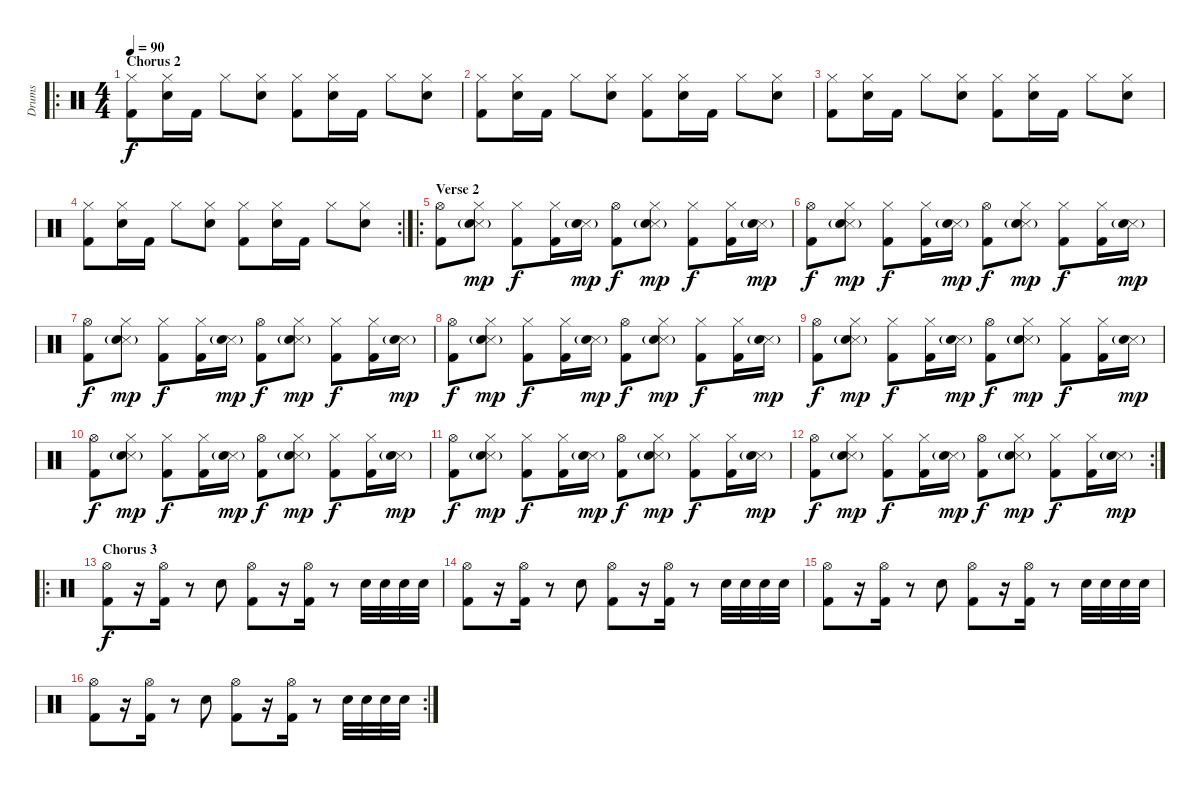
\track ("Drums" "Drums") {instrument percussion}
\staff {score}
\articulation defaults
\ro
\ts (4 4)
\section ("" "Chorus 2")
\tempo 90
\clef neutral
\ks c
("Hi-Hat (closed)" "Kick (hit) 2").8{dy f} ("Hi-Hat (closed)" "Electric Snare (hit)").16 "Kick (hit) 2".16 "Hi-Hat (closed)".8 ("Hi-Hat (closed)" "Electric Snare (hit)").8 ("Hi-Hat (closed)" "Kick (hit) 2").8 ("Hi-Hat (closed)" "Electric Snare (hit)").16 "Kick (hit) 2".16 "Hi-Hat (closed)".8 ("Hi-Hat (closed)" "Electric Snare (hit)").8 |
("Hi-Hat (closed)" "Kick (hit) 2").8 ("Hi-Hat (closed)" "Electric Snare (hit)").16 "Kick (hit) 2".16 "Hi-Hat (closed)".8 ("Hi-Hat (closed)" "Electric Snare (hit)").8 ("Hi-Hat (closed)" "Kick (hit) 2").8 ("Hi-Hat (closed)" "Electric Snare (hit)").16 "Kick (hit) 2".16 "Hi-Hat (closed)".8 ("Hi-Hat (closed)" "Electric Snare (hit)").8 |
("Hi-Hat (closed)" "Kick (hit) 2").8 ("Hi-Hat (closed)" "Electric Snare (hit)").16 "Kick (hit) 2".16 "Hi-Hat (closed)".8 ("Hi-Hat (closed)" "Electric Snare (hit)").8 ("Hi-Hat (closed)" "Kick (hit) 2").8 ("Hi-Hat (closed)" "Electric Snare (hit)").16 "Kick (hit) 2".16 "Hi-Hat (closed)".8 ("Hi-Hat (closed)" "Electric Snare (hit)").8 |
\rc 2
("Hi-Hat (closed)" "Kick (hit) 2").8 ("Hi-Hat (closed)" "Electric Snare (hit)").16 "Kick (hit) 2".16 "Hi-Hat (closed)".8 ("Hi-Hat (closed)" "Electric Snare (hit)").8 ("Hi-Hat (closed)" "Kick (hit) 2").8 ("Hi-Hat (closed)" "Electric Snare (hit)").16 "Kick (hit) 2".16 "Hi-Hat (closed)".8 ("Hi-Hat (closed)" "Electric Snare (hit)").8 |
\ro
\section ("" "Verse 2")
("Hi-Hat (open)" "Kick (hit) 2").8 ("Hi-Hat (closed)" "Snare (side stick) 3" "Electric Snare (hit)"{g}).8{dy mp} ("Hi-Hat (closed)" "Kick (hit) 2").8{dy f} ("Hi-Hat (closed)" "Kick (hit) 2").16 ("Snare (side stick) 3" "Electric Snare (hit)"{g}).16{dy mp} ("Hi-Hat (open)" "Kick (hit) 2").8{dy f} ("Hi-Hat (closed)" "Snare (side stick) 3" "Electric Snare (hit)"{g}).8{dy mp} ("Hi-Hat (closed)" "Kick (hit) 2").8{dy f} ("Hi-Hat (closed)" "Kick (hit) 2").16 ("Snare (side stick) 3" "Electric Snare (hit)"{g}).16{dy mp} |
("Hi-Hat (open)" "Kick (hit) 2").8{dy f} ("Hi-Hat (closed)" "Snare (side stick) 3" "Electric Snare (hit)"{g}).8{dy mp} ("Hi-Hat (closed)" "Kick (hit) 2").8{dy f} ("Hi-Hat (closed)" "Kick (hit) 2").16 ("Snare (side stick) 3" "Electric Snare (hit)"{g}).16{dy mp} ("Hi-Hat (open)" "Kick (hit) 2").8{dy f} ("Hi-Hat (closed)" "Snare (side stick) 3" "Electric Snare (hit)"{g}).8{dy mp} ("Hi-Hat (closed)" "Kick (hit) 2").8{dy f} ("Hi-Hat (closed)" "Kick (hit) 2").16 ("Snare (side stick) 3" "Electric Snare (hit)"{g}).16{dy mp} |
("Hi-Hat (open)" "Kick (hit) 2").8{dy f} ("Hi-Hat (closed)" "Snare (side stick) 3" "Electric Snare (hit)"{g}).8{dy mp} ("Hi-Hat (closed)" "Kick (hit) 2").8{dy f} ("Hi-Hat (closed)" "Kick (hit) 2").16 ("Snare (side stick) 3" "Electric Snare (hit)"{g}).16{dy mp} ("Hi-Hat (open)" "Kick (hit) 2").8{dy f} ("Hi-Hat (closed)" "Snare (side stick) 3" "Electric Snare (hit)"{g}).8{dy mp} ("Hi-Hat (closed)" "Kick (hit) 2").8{dy f} ("Hi-Hat (closed)" "Kick (hit) 2").16 ("Snare (side stick) 3" "Electric Snare (hit)"{g}).16{dy mp} |
("Hi-Hat (open)" "Kick (hit) 2").8{dy f} ("Hi-Hat (closed)" "Snare (side stick) 3" "Electric Snare (hit)"{g}).8{dy mp} ("Hi-Hat (closed)" "Kick (hit) 2").8{dy f} ("Hi-Hat (closed)" "Kick (hit) 2").16 ("Snare (side stick) 3" "Electric Snare (hit)"{g}).16{dy mp} ("Hi-Hat (open)" "Kick (hit) 2").8{dy f} ("Hi-Hat (closed)" "Snare (side stick) 3" "Electric Snare (hit)"{g}).8{dy mp} ("Hi-Hat (closed)" "Kick (hit) 2").8{dy f} ("Hi-Hat (closed)" "Kick (hit) 2").16 ("Snare (side stick) 3" "Electric Snare (hit)"{g}).16{dy mp} |
("Hi-Hat (open)" "Kick (hit) 2").8{dy f} ("Hi-Hat (closed)" "Snare (side stick) 3" "Electric Snare (hit)"{g}).8{dy mp} ("Hi-Hat (closed)" "Kick (hit) 2").8{dy f} ("Hi-Hat (closed)" "Kick (hit) 2").16 ("Snare (side stick) 3" "Electric Snare (hit)"{g}).16{dy mp} ("Hi-Hat (open)" "Kick (hit) 2").8{dy f} ("Hi-Hat (closed)" "Snare (side stick) 3" "Electric Snare (hit)"{g}).8{dy mp} ("Hi-Hat (closed)" "Kick (hit) 2").8{dy f} ("Hi-Hat (closed)" "Kick (hit) 2").16 ("Snare (side stick) 3" "Electric Snare (hit)"{g}).16{dy mp} |
("Hi-Hat (open)" "Kick (hit) 2").8{dy f} ("Hi-Hat (closed)" "Snare (side stick) 3" "Electric Snare (hit)"{g}).8{dy mp} ("Hi-Hat (closed)" "Kick (hit) 2").8{dy f} ("Hi-Hat (closed)" "Kick (hit) 2").16 ("Snare (side stick) 3" "Electric Snare (hit)"{g}).16{dy mp} ("Hi-Hat (open)" "Kick (hit) 2").8{dy f} ("Hi-Hat (closed)" "Snare (side stick) 3" "Electric Snare (hit)"{g}).8{dy mp} ("Hi-Hat (closed)" "Kick (hit) 2").8{dy f} ("Hi-Hat (closed)" "Kick (hit) 2").16 ("Snare (side stick) 3" "Electric Snare (hit)"{g}).16{dy mp} |
("Hi-Hat (open)" "Kick (hit) 2").8{dy f} ("Hi-Hat (closed)" "Snare (side stick) 3" "Electric Snare (hit)"{g}).8{dy mp} ("Hi-Hat (closed)" "Kick (hit) 2").8{dy f} ("Hi-Hat (closed)" "Kick (hit) 2").16 ("Snare (side stick) 3" "Electric Snare (hit)"{g}).16{dy mp} ("Hi-Hat (open)" "Kick (hit) 2").8{dy f} ("Hi-Hat (closed)" "Snare (side stick) 3" "Electric Snare (hit)"{g}).8{dy mp} ("Hi-Hat (closed)" "Kick (hit) 2").8{dy f} ("Hi-Hat (closed)" "Kick (hit) 2").16 ("Snare (side stick) 3" "Electric Snare (hit)"{g}).16{dy mp} |
\rc 2
("Hi-Hat (open)" "Kick (hit) 2").8{dy f} ("Hi-Hat (closed)" "Snare (side stick) 3" "Electric Snare (hit)"{g}).8{dy mp} ("Hi-Hat (closed)" "Kick (hit) 2").8{dy f} ("Hi-Hat (closed)" "Kick (hit) 2").16 ("Snare (side stick) 3" "Electric Snare (hit)"{g}).16{dy mp} ("Hi-Hat (open)" "Kick (hit) 2").8{dy f} ("Hi-Hat (closed)" "Snare (side stick) 3" "Electric Snare (hit)"{g}).8{dy mp} ("Hi-Hat (closed)" "Kick (hit) 2").8{dy f} ("Hi-Hat (closed)" "Kick (hit) 2").16 ("Snare (side stick) 3" "Electric Snare (hit)"{g}).16{dy mp} |
\ro
\section ("" "Chorus 3")
("Hi-Hat (open)" "Kick (hit) 2").8{dy f} r.16 ("Hi-Hat (open)" "Kick (hit) 2").16 r.8 "Electric Snare (hit)".8 ("Hi-Hat (open)" "Kick (hit) 2").8 r.16 ("Hi-Hat (open)" "Kick (hit) 2").16 r.8 "Electric Snare (hit)".32 "Electric Snare (hit)".32 "Electric Snare (hit)".32 "Electric Snare (hit)".32 |
("Hi-Hat (open)" "Kick (hit) 2").8 r.16 ("Hi-Hat (open)" "Kick (hit) 2").16 r.8 "Electric Snare (hit)".8 ("Hi-Hat (open)" "Kick (hit) 2").8 r.16 ("Hi-Hat (open)" "Kick (hit) 2").16 r.8 "Electric Snare (hit)".32 "Electric Snare (hit)".32 "Electric Snare (hit)".32 "Electric Snare (hit)".32 |
("Hi-Hat (open)" "Kick (hit) 2").8 r.16 ("Hi-Hat (open)" "Kick (hit) 2").16 r.8 "Electric Snare (hit)".8 ("Hi-Hat (open)" "Kick (hit) 2").8 r.16 ("Hi-Hat (open)" "Kick (hit) 2").16 r.8 "Electric Snare (hit)".32 "Electric Snare (hit)".32 "Electric Snare (hit)".32 "Electric Snare (hit)".32 |
\rc 2
("Hi-Hat (open)" "Kick (hit) 2").8 r.16 ("Hi-Hat (open)" "Kick (hit) 2").16 r.8 "Electric Snare (hit)".8 ("Hi-Hat (open)" "Kick (hit) 2").8 r.16 ("Hi-Hat (open)" "Kick (hit) 2").16 r.8 "Electric Snare (hit)".32 "Electric Snare (hit)".32 "Electric Snare (hit)".32 "Electric Snare (hit)".32
